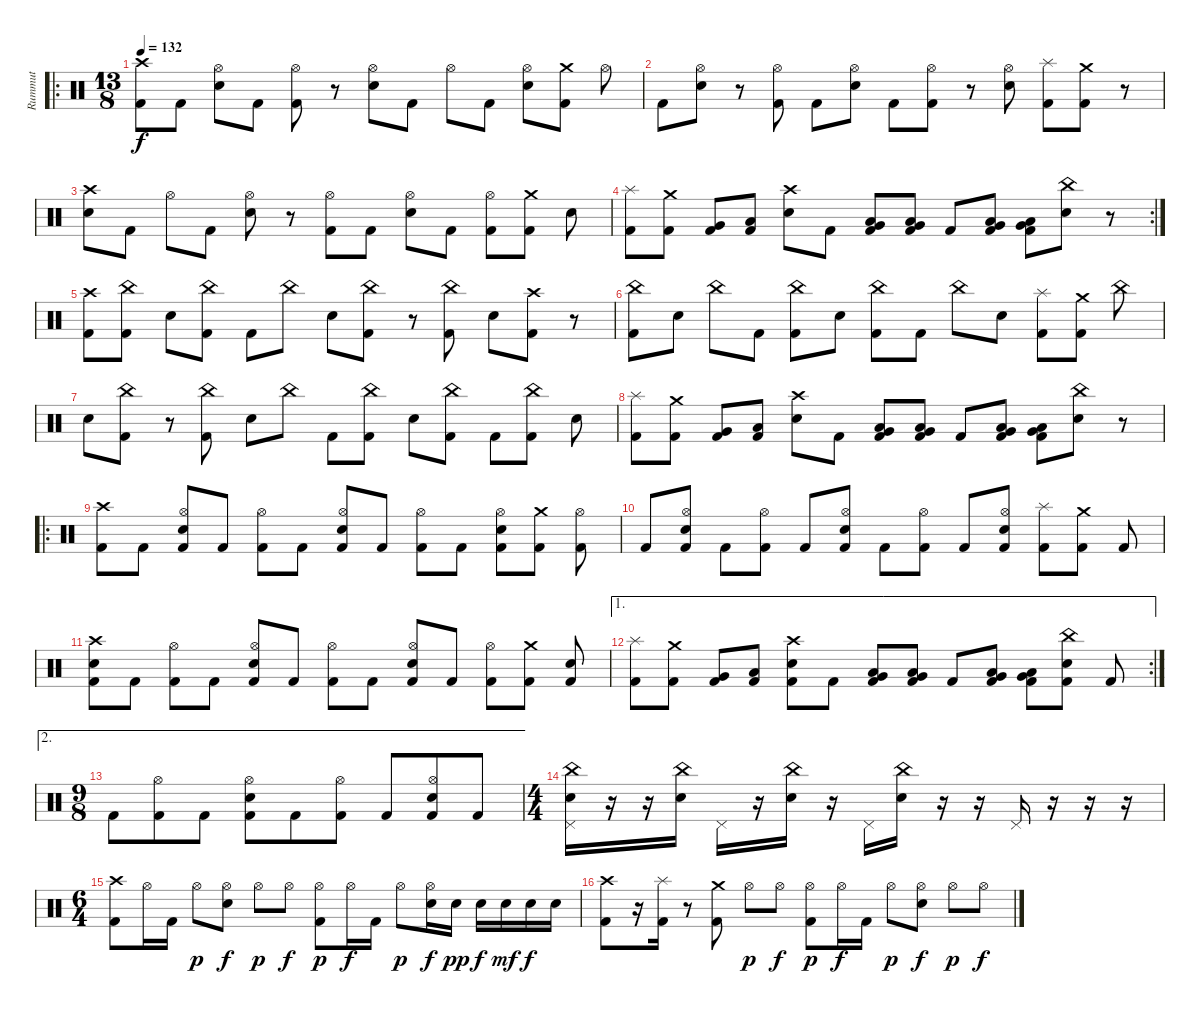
\track ("Rummut" "Rummut") {instrument percussion}
\staff {score}
\articulation defaults
\ro
\ts (13 8)
\tempo 132
\clef neutral
\ks c
("Crash high (hit)" "Kick (hit) 2").8{dy f} "Kick (hit) 2".8 ("Hi-Hat (open)" "Electric Snare (hit)").8 "Kick (hit) 2".8 ("Hi-Hat (open)" "Kick (hit) 2").8 r.8 ("Hi-Hat (open)" "Electric Snare (hit)").8 "Kick (hit) 2".8 "Hi-Hat (open)".8 "Kick (hit) 2".8 ("Hi-Hat (open)" "Electric Snare (hit)").8 ("Crash medium (hit)" "Kick (hit) 2").8 "Hi-Hat (open)".8 |
"Kick (hit) 2".8 ("Hi-Hat (open)" "Electric Snare (hit)").8 r.8 ("Hi-Hat (open)" "Kick (hit) 2").8 "Kick (hit) 2".8 ("Hi-Hat (open)" "Electric Snare (hit)").8 "Kick (hit) 2".8 ("Hi-Hat (open)" "Kick (hit) 2").8 r.8 ("Hi-Hat (open)" "Electric Snare (hit)").8 ("Splash (hit)" "Kick (hit) 2").8 ("Crash medium (hit)" "Kick (hit) 2").8 r.8 |
("Crash high (hit)" "Electric Snare (hit)").8 "Kick (hit) 2".8 "Hi-Hat (open)".8 "Kick (hit) 2".8 ("Hi-Hat (open)" "Electric Snare (hit)").8 r.8 ("Hi-Hat (open)" "Kick (hit) 2").8 "Kick (hit) 2".8 ("Hi-Hat (open)" "Electric Snare (hit)").8 "Kick (hit) 2".8 ("Hi-Hat (open)" "Kick (hit) 2").8 ("Crash medium (hit)" "Kick (hit) 2").8 "Electric Snare (hit)".8 |
\rc 2
("Splash (hit)" "Kick (hit) 2").8 ("Crash medium (hit)" "Kick (hit) 2").8 ("Very Low Tom (hit)" "Kick (hit) 2").8 ("Low Floor Tom (hit)" "Kick (hit) 2").8 ("Crash high (hit)" "Electric Snare (hit)").8 "Kick (hit) 2".8 ("Very Low Tom (hit)" "Low Floor Tom (hit)" "Kick (hit) 2").8 ("Very Low Tom (hit)" "Low Floor Tom (hit)" "Kick (hit) 2").8 "Kick (hit) 2".8 ("Very Low Tom (hit)" "Low Floor Tom (hit)" "Kick (hit) 2").8 ("Very Low Tom (hit)" "Low Floor Tom (hit)" "Kick (hit) 2").8 ("China (hit)" "Electric Snare (hit)").8 r.8 |
("Crash high (hit)" "Kick (hit) 2").8 ("China (hit)" "Kick (hit) 2").8 "Electric Snare (hit)".8 ("China (hit)" "Kick (hit) 2").8 "Kick (hit) 2".8 "China (hit)".8 "Electric Snare (hit)".8 ("China (hit)" "Kick (hit) 2").8 r.8 ("China (hit)" "Kick (hit) 2").8 "Electric Snare (hit)".8 ("Crash high (hit)" "Kick (hit) 2").8 r.8 |
("China (hit)" "Kick (hit) 2").8 "Electric Snare (hit)".8 "China (hit)".8 "Kick (hit) 2".8 ("China (hit)" "Kick (hit) 2").8 "Electric Snare (hit)".8 ("China (hit)" "Kick (hit) 2").8 "Kick (hit) 2".8 "China (hit)".8 "Electric Snare (hit)".8 ("Splash (hit)" "Kick (hit) 2").8 ("Crash medium (hit)" "Kick (hit) 2").8 "China (hit)".8 |
"Electric Snare (hit)".8 ("China (hit)" "Kick (hit) 2").8 r.8 ("China (hit)" "Kick (hit) 2").8 "Electric Snare (hit)".8 "China (hit)".8 "Kick (hit) 2".8 ("China (hit)" "Kick (hit) 2").8 "Electric Snare (hit)".8 ("China (hit)" "Kick (hit) 2").8 "Kick (hit) 2".8 ("China (hit)" "Kick (hit) 2").8 "Electric Snare (hit)".8 |
("Splash (hit)" "Kick (hit) 2").8 ("Crash medium (hit)" "Kick (hit) 2").8 ("Very Low Tom (hit)" "Kick (hit) 2").8 ("Low Floor Tom (hit)" "Kick (hit) 2").8 ("Crash high (hit)" "Electric Snare (hit)").8 "Kick (hit) 2".8 ("Very Low Tom (hit)" "Low Floor Tom (hit)" "Kick (hit) 2").8 ("Very Low Tom (hit)" "Low Floor Tom (hit)" "Kick (hit) 2").8 "Kick (hit) 2".8 ("Very Low Tom (hit)" "Low Floor Tom (hit)" "Kick (hit) 2").8 ("Very Low Tom (hit)" "Low Floor Tom (hit)" "Kick (hit) 2").8 ("China (hit)" "Electric Snare (hit)").8 r.8 |
\ro
("Crash high (hit)" "Kick (hit) 2").8 "Kick (hit) 2".8 ("Hi-Hat (open)" "Electric Snare (hit)" "Kick (hit) 2").8 "Kick (hit) 2".8 ("Hi-Hat (open)" "Kick (hit) 2").8 "Kick (hit) 2".8 ("Hi-Hat (open)" "Electric Snare (hit)" "Kick (hit) 2").8 "Kick (hit) 2".8 ("Hi-Hat (open)" "Kick (hit) 2").8 "Kick (hit) 2".8 ("Hi-Hat (open)" "Electric Snare (hit)" "Kick (hit) 2").8 ("Crash medium (hit)" "Kick (hit) 2").8 ("Hi-Hat (open)" "Kick (hit) 2").8 |
"Kick (hit) 2".8 ("Hi-Hat (open)" "Electric Snare (hit)" "Kick (hit) 2").8 "Kick (hit) 2".8 ("Hi-Hat (open)" "Kick (hit) 2").8 "Kick (hit) 2".8 ("Hi-Hat (open)" "Electric Snare (hit)" "Kick (hit) 2").8 "Kick (hit) 2".8 ("Hi-Hat (open)" "Kick (hit) 2").8 "Kick (hit) 2".8 ("Hi-Hat (open)" "Electric Snare (hit)" "Kick (hit) 2").8 ("Splash (hit)" "Kick (hit) 2").8 ("Crash medium (hit)" "Kick (hit) 2").8 "Kick (hit) 2".8 |
("Crash high (hit)" "Electric Snare (hit)" "Kick (hit) 2").8 "Kick (hit) 2".8 ("Hi-Hat (open)" "Kick (hit) 2").8 "Kick (hit) 2".8 ("Hi-Hat (open)" "Electric Snare (hit)" "Kick (hit) 2").8 "Kick (hit) 2".8 ("Hi-Hat (open)" "Kick (hit) 2").8 "Kick (hit) 2".8 ("Hi-Hat (open)" "Electric Snare (hit)" "Kick (hit) 2").8 "Kick (hit) 2".8 ("Hi-Hat (open)" "Kick (hit) 2").8 ("Crash medium (hit)" "Kick (hit) 2").8 ("Electric Snare (hit)" "Kick (hit) 2").8 |
\ae 1
\rc 2
("Splash (hit)" "Kick (hit) 2").8 ("Crash medium (hit)" "Kick (hit) 2").8 ("Very Low Tom (hit)" "Kick (hit) 2").8 ("Low Floor Tom (hit)" "Kick (hit) 2").8 ("Crash high (hit)" "Electric Snare (hit)" "Kick (hit) 2").8 "Kick (hit) 2".8 ("Very Low Tom (hit)" "Low Floor Tom (hit)" "Kick (hit) 2").8 ("Very Low Tom (hit)" "Low Floor Tom (hit)" "Kick (hit) 2").8 "Kick (hit) 2".8 ("Very Low Tom (hit)" "Low Floor Tom (hit)" "Kick (hit) 2").8 ("Very Low Tom (hit)" "Low Floor Tom (hit)" "Kick (hit) 2").8 ("China (hit)" "Electric Snare (hit)" "Kick (hit) 2").8 "Kick (hit) 2".8 |
\ae 2
\ts (9 8)
"Kick (hit) 2".8 ("Hi-Hat (open)" "Kick (hit) 2").8 "Kick (hit) 2".8 ("Hi-Hat (open)" "Electric Snare (hit)" "Kick (hit) 2").8 "Kick (hit) 2".8 ("Hi-Hat (open)" "Kick (hit) 2").8 "Kick (hit) 2".8 ("Hi-Hat (open)" "Electric Snare (hit)" "Kick (hit) 2").8 "Kick (hit) 2".8 |
\ts (4 4)
("China (hit)" "Pedal Hi-Hat (hit)" "Electric Snare (hit)").16 r.16 r.16 ("China (hit)" "Electric Snare (hit)").16 "Pedal Hi-Hat (hit)".16 r.16 ("China (hit)" "Electric Snare (hit)").16 r.16 "Pedal Hi-Hat (hit)".16 ("China (hit)" "Electric Snare (hit)").16 r.16 r.16 "Pedal Hi-Hat (hit)".16 r.16 r.16 r.16 |
\ts (6 4)
("Crash high (hit)" "Kick (hit) 2").8 "Hi-Hat (open)".16 "Kick (hit) 2".16 "Hi-Hat (open)".8{dy p} ("Hi-Hat (open)" "Electric Snare (hit)").8{dy f} "Hi-Hat (open)".8{dy p} "Hi-Hat (open)".8{dy f} ("Hi-Hat (open)" "Kick (hit) 2").8{dy p} "Hi-Hat (open)".16{dy f} "Kick (hit) 2".16 "Hi-Hat (open)".8{dy p} ("Hi-Hat (open)" "Electric Snare (hit)").16{dy f} "Electric Snare (hit)".16{dy pp} "Electric Snare (hit)".16{dy f} "Electric Snare (hit)".16{dy mf} "Electric Snare (hit)".16{dy f} "Electric Snare (hit)".16 |
("Crash high (hit)" "Kick (hit) 2").8 r.16 ("Splash (hit)" "Kick (hit) 2").16 r.8 ("Crash medium (hit)" "Kick (hit) 2").8 "Hi-Hat (open)".8{dy p} "Hi-Hat (open)".8{dy f} ("Hi-Hat (open)" "Kick (hit) 2").8{dy p} "Hi-Hat (open)".16{dy f} "Kick (hit) 2".16 "Hi-Hat (open)".8{dy p} ("Hi-Hat (open)" "Electric Snare (hit)").8{dy f} "Hi-Hat (open)".8{dy p} "Hi-Hat (open)".8{dy f}
